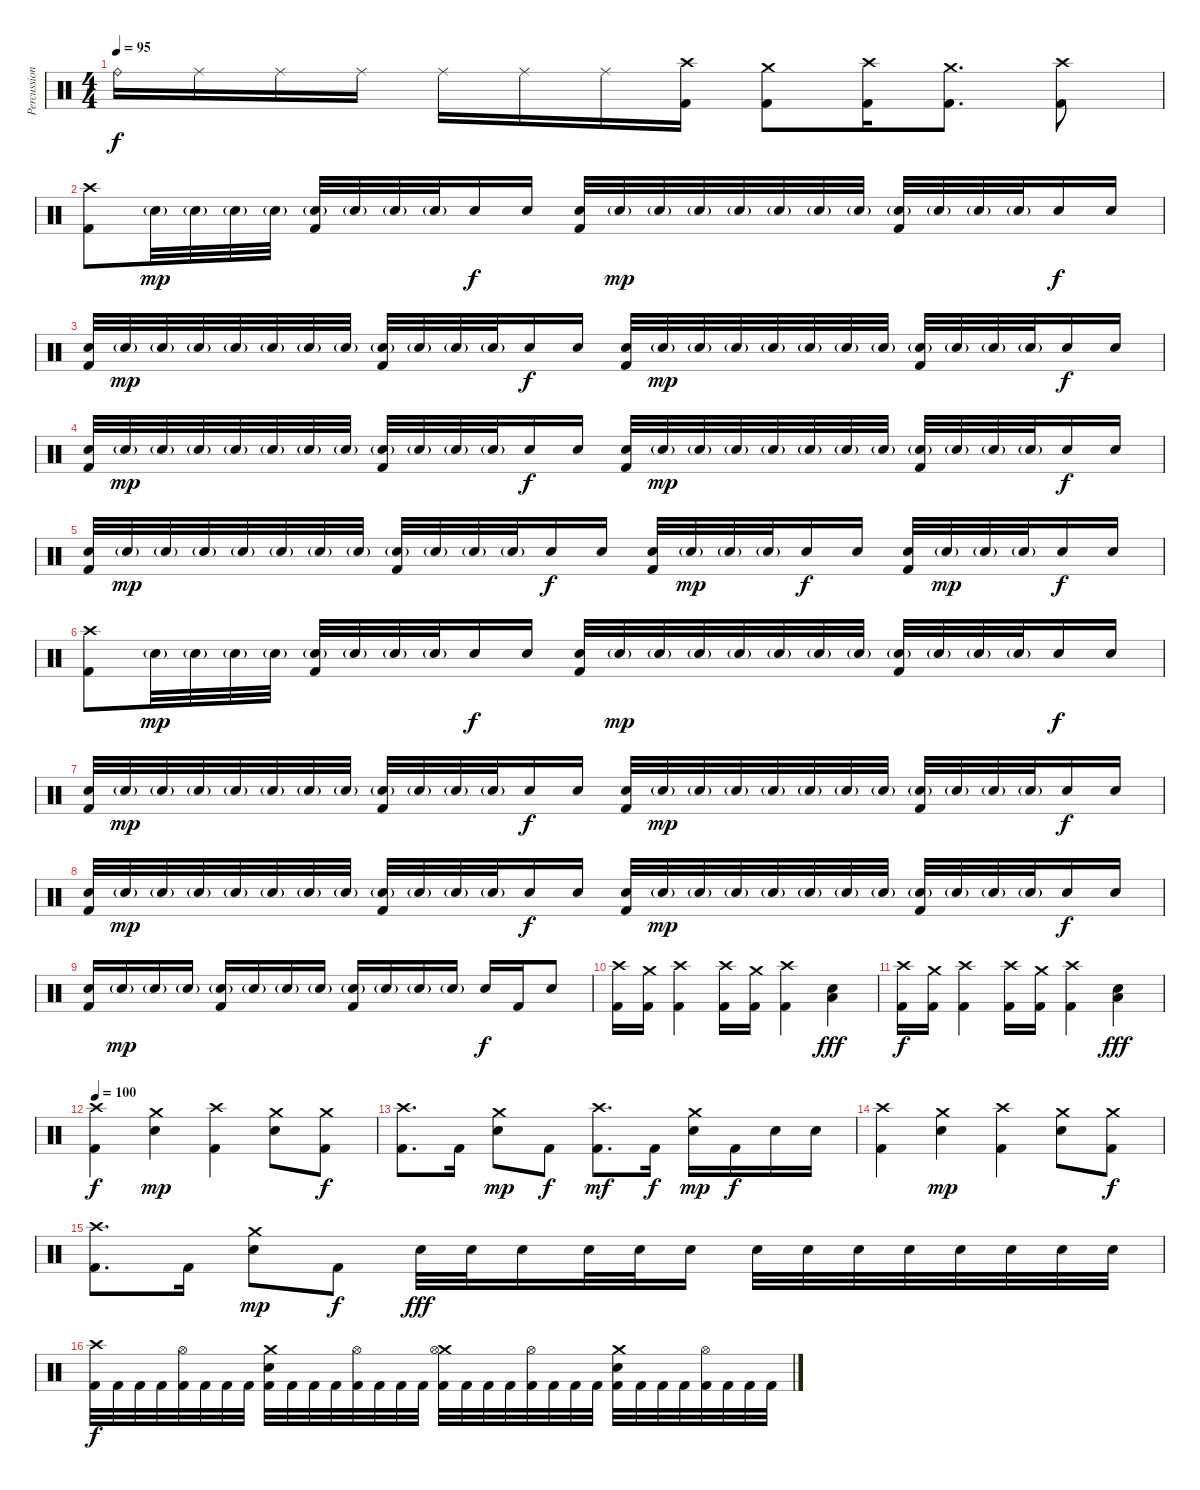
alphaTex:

\track ("Percussion" "Percussion") {instrument percussion}
\staff {score}
\articulation defaults
\ts (4 4)
\tempo 95
\clef neutral
\ks c "Ride (bell)".16{dy f} "Ride (middle)".16 "Ride (middle)".16 "Ride (middle)".16 "Ride (middle)".16 "Ride (middle)".16 "Ride (middle)".16
("Crash high (hit)" "Kick (hit) 2").16 ("Crash medium (hit)" "Kick (hit) 2").8 ("Crash high (hit)" "Kick (hit) 2").16 ("Crash medium (hit)" "Kick (hit) 2").8{d} ("Crash high (hit)" "Kick (hit) 2").8 |
("Crash high (hit)" "Kick (hit) 2").8 "Snare (hit) 2"{g}.32{dy mp} "Snare (hit) 2"{g}.32 "Snare (hit) 2"{g}.32 "Snare (hit) 2"{g}.32 ("Snare (hit) 2"{g} "Kick (hit) 2").32 "Snare (hit) 2"{g}.32 "Snare (hit) 2"{g}.32 "Snare (hit) 2"{g}.32 "Snare (hit) 2".16{dy f} "Snare (hit) 2".16 ("Snare (hit) 2" "Kick (hit) 2").32 "Snare (hit) 2"{g}.32{dy mp} "Snare (hit) 2"{g}.32 "Snare (hit) 2"{g}.32 "Snare (hit) 2"{g}.32 "Snare (hit) 2"{g}.32 "Snare (hit) 2"{g}.32 "Snare (hit) 2"{g}.32 ("Snare (hit) 2"{g} "Kick (hit) 2").32 "Snare (hit) 2"{g}.32 "Snare (hit) 2"{g}.32 "Snare (hit) 2"{g}.32 "Snare (hit) 2".16{dy f} "Snare (hit) 2".16 |
("Snare (hit) 2" "Kick (hit) 2").32 "Snare (hit) 2"{g}.32{dy mp} "Snare (hit) 2"{g}.32 "Snare (hit) 2"{g}.32 "Snare (hit) 2"{g}.32 "Snare (hit) 2"{g}.32 "Snare (hit) 2"{g}.32 "Snare (hit) 2"{g}.32 ("Snare (hit) 2"{g} "Kick (hit) 2").32 "Snare (hit) 2"{g}.32 "Snare (hit) 2"{g}.32 "Snare (hit) 2"{g}.32 "Snare (hit) 2".16{dy f} "Snare (hit) 2".16 ("Snare (hit) 2" "Kick (hit) 2").32 "Snare (hit) 2"{g}.32{dy mp} "Snare (hit) 2"{g}.32 "Snare (hit) 2"{g}.32 "Snare (hit) 2"{g}.32 "Snare (hit) 2"{g}.32 "Snare (hit) 2"{g}.32 "Snare (hit) 2"{g}.32 ("Snare (hit) 2"{g} "Kick (hit) 2").32 "Snare (hit) 2"{g}.32 "Snare (hit) 2"{g}.32 "Snare (hit) 2"{g}.32 "Snare (hit) 2".16{dy f} "Snare (hit) 2".16 |
("Snare (hit) 2" "Kick (hit) 2").32 "Snare (hit) 2"{g}.32{dy mp} "Snare (hit) 2"{g}.32 "Snare (hit) 2"{g}.32 "Snare (hit) 2"{g}.32 "Snare (hit) 2"{g}.32 "Snare (hit) 2"{g}.32 "Snare (hit) 2"{g}.32 ("Snare (hit) 2"{g} "Kick (hit) 2").32 "Snare (hit) 2"{g}.32 "Snare (hit) 2"{g}.32 "Snare (hit) 2"{g}.32 "Snare (hit) 2".16{dy f} "Snare (hit) 2".16 ("Snare (hit) 2" "Kick (hit) 2").32 "Snare (hit) 2"{g}.32{dy mp} "Snare (hit) 2"{g}.32 "Snare (hit) 2"{g}.32 "Snare (hit) 2"{g}.32 "Snare (hit) 2"{g}.32 "Snare (hit) 2"{g}.32 "Snare (hit) 2"{g}.32 ("Snare (hit) 2"{g} "Kick (hit) 2").32 "Snare (hit) 2"{g}.32 "Snare (hit) 2"{g}.32 "Snare (hit) 2"{g}.32 "Snare (hit) 2".16{dy f} "Snare (hit) 2".16 |
("Snare (hit) 2" "Kick (hit) 2").32 "Snare (hit) 2"{g}.32{dy mp} "Snare (hit) 2"{g}.32 "Snare (hit) 2"{g}.32 "Snare (hit) 2"{g}.32 "Snare (hit) 2"{g}.32 "Snare (hit) 2"{g}.32 "Snare (hit) 2"{g}.32 ("Snare (hit) 2"{g} "Kick (hit) 2").32 "Snare (hit) 2"{g}.32 "Snare (hit) 2"{g}.32 "Snare (hit) 2"{g}.32 "Snare (hit) 2".16{dy f} "Snare (hit) 2".16 ("Snare (hit) 2" "Kick (hit) 2").32 "Snare (hit) 2"{g}.32{dy mp} "Snare (hit) 2"{g}.32 "Snare (hit) 2"{g}.32 "Snare (hit) 2".16{dy f} "Snare (hit) 2".16 ("Snare (hit) 2" "Kick (hit) 2").32 "Snare (hit) 2"{g}.32{dy mp} "Snare (hit) 2"{g}.32 "Snare (hit) 2"{g}.32 "Snare (hit) 2".16{dy f} "Snare (hit) 2".16 |
("Crash high (hit)" "Kick (hit) 2").8 "Snare (hit) 2"{g}.32{dy mp} "Snare (hit) 2"{g}.32 "Snare (hit) 2"{g}.32 "Snare (hit) 2"{g}.32 ("Snare (hit) 2"{g} "Kick (hit) 2").32 "Snare (hit) 2"{g}.32 "Snare (hit) 2"{g}.32 "Snare (hit) 2"{g}.32 "Snare (hit) 2".16{dy f} "Snare (hit) 2".16 ("Snare (hit) 2" "Kick (hit) 2").32 "Snare (hit) 2"{g}.32{dy mp} "Snare (hit) 2"{g}.32 "Snare (hit) 2"{g}.32 "Snare (hit) 2"{g}.32 "Snare (hit) 2"{g}.32 "Snare (hit) 2"{g}.32 "Snare (hit) 2"{g}.32 ("Snare (hit) 2"{g} "Kick (hit) 2").32 "Snare (hit) 2"{g}.32 "Snare (hit) 2"{g}.32 "Snare (hit) 2"{g}.32 "Snare (hit) 2".16{dy f} "Snare (hit) 2".16 |
("Snare (hit) 2" "Kick (hit) 2").32 "Snare (hit) 2"{g}.32{dy mp} "Snare (hit) 2"{g}.32 "Snare (hit) 2"{g}.32 "Snare (hit) 2"{g}.32 "Snare (hit) 2"{g}.32 "Snare (hit) 2"{g}.32 "Snare (hit) 2"{g}.32 ("Snare (hit) 2"{g} "Kick (hit) 2").32 "Snare (hit) 2"{g}.32 "Snare (hit) 2"{g}.32 "Snare (hit) 2"{g}.32 "Snare (hit) 2".16{dy f} "Snare (hit) 2".16 ("Snare (hit) 2" "Kick (hit) 2").32 "Snare (hit) 2"{g}.32{dy mp} "Snare (hit) 2"{g}.32 "Snare (hit) 2"{g}.32 "Snare (hit) 2"{g}.32 "Snare (hit) 2"{g}.32 "Snare (hit) 2"{g}.32 "Snare (hit) 2"{g}.32 ("Snare (hit) 2"{g} "Kick (hit) 2").32 "Snare (hit) 2"{g}.32 "Snare (hit) 2"{g}.32 "Snare (hit) 2"{g}.32 "Snare (hit) 2".16{dy f} "Snare (hit) 2".16 |
("Snare (hit) 2" "Kick (hit) 2").32 "Snare (hit) 2"{g}.32{dy mp} "Snare (hit) 2"{g}.32 "Snare (hit) 2"{g}.32 "Snare (hit) 2"{g}.32 "Snare (hit) 2"{g}.32 "Snare (hit) 2"{g}.32 "Snare (hit) 2"{g}.32 ("Snare (hit) 2"{g} "Kick (hit) 2").32 "Snare (hit) 2"{g}.32 "Snare (hit) 2"{g}.32 "Snare (hit) 2"{g}.32 "Snare (hit) 2".16{dy f} "Snare (hit) 2".16 ("Snare (hit) 2" "Kick (hit) 2").32 "Snare (hit) 2"{g}.32{dy mp} "Snare (hit) 2"{g}.32 "Snare (hit) 2"{g}.32 "Snare (hit) 2"{g}.32 "Snare (hit) 2"{g}.32 "Snare (hit) 2"{g}.32 "Snare (hit) 2"{g}.32 ("Snare (hit) 2"{g} "Kick (hit) 2").32 "Snare (hit) 2"{g}.32 "Snare (hit) 2"{g}.32 "Snare (hit) 2"{g}.32 "Snare (hit) 2".16{dy f} "Snare (hit) 2".16 |
("Snare (hit) 2" "Kick (hit) 2").16 "Snare (hit) 2"{g}.16{dy mp} "Snare (hit) 2"{g}.16 "Snare (hit) 2"{g}.16 ("Snare (hit) 2"{g} "Kick (hit) 2").16 "Snare (hit) 2"{g}.16 "Snare (hit) 2"{g}.16 "Snare (hit) 2"{g}.16 ("Snare (hit) 2"{g} "Kick (hit) 2").16 "Snare (hit) 2"{g}.16 "Snare (hit) 2"{g}.16 "Snare (hit) 2"{g}.16 "Snare (hit) 2".16{dy f} "Kick (hit) 2".16 "Snare (hit) 2".8 |
("Crash high (hit)" "Kick (hit) 2").16 ("Crash medium (hit)" "Kick (hit) 2").16 ("Crash high (hit)" "Kick (hit) 2").4 ("Crash high (hit)" "Kick (hit) 2").16 ("Crash medium (hit)" "Kick (hit) 2").16 ("Crash high (hit)" "Kick (hit) 2").4 ("Snare (hit) 2" "Low Floor Tom (hit)").4{dy fff} |
("Crash high (hit)" "Kick (hit) 2").16{dy f} ("Crash medium (hit)" "Kick (hit) 2").16 ("Crash high (hit)" "Kick (hit) 2").4 ("Crash high (hit)" "Kick (hit) 2").16 ("Crash medium (hit)" "Kick (hit) 2").16 ("Crash high (hit)" "Kick (hit) 2").4 ("Snare (hit) 2" "Low Floor Tom (hit)").4{dy fff} |
\tempo 100
("Crash high (hit)" "Kick (hit) 2").4{dy f} ("Crash medium (hit)" "Snare (hit) 2").4{dy mp} ("Crash high (hit)" "Kick (hit) 2").4 ("Crash medium (hit)" "Snare (hit) 2").8 ("Crash medium (hit)" "Kick (hit) 2").8{dy f} |
("Crash high (hit)" "Kick (hit) 2").8{d} "Kick (hit) 2".16 ("Crash medium (hit)" "Snare (hit) 2").8{dy mp} "Kick (hit) 2".8{dy f} ("Crash high (hit)" "Kick (hit) 2").8{d dy mf} "Kick (hit) 2".16{dy f} ("Crash medium (hit)" "Snare (hit) 2").16{dy mp} "Kick (hit) 2".16{dy f} "Snare (hit) 2".16 "Snare (hit) 2".16 |
("Crash high (hit)" "Kick (hit) 2").4 ("Crash medium (hit)" "Snare (hit) 2").4{dy mp} ("Crash high (hit)" "Kick (hit) 2").4 ("Crash medium (hit)" "Snare (hit) 2").8 ("Crash medium (hit)" "Kick (hit) 2").8{dy f} |
("Crash high (hit)" "Kick (hit) 2").8{d} "Kick (hit) 2".16 ("Crash medium (hit)" "Snare (hit) 2").8{dy mp} "Kick (hit) 2".8{dy f} "Snare (hit) 2".32{dy fff} "Snare (hit) 2".32 "Snare (hit) 2".16 "Snare (hit) 2".32 "Snare (hit) 2".32 "Snare (hit) 2".16 "Snare (hit) 2".32 "Snare (hit) 2".32 "Snare (hit) 2".32 "Snare (hit) 2".32 "Snare (hit) 2".32 "Snare (hit) 2".32 "Snare (hit) 2".32 "Snare (hit) 2".32 |
("Crash high (hit)" "Kick (hit) 2").32{dy f} "Kick (hit) 2".32 "Kick (hit) 2".32 "Kick (hit) 2".32 ("Hi-Hat (open)" "Kick (hit) 2").32 "Kick (hit) 2".32 "Kick (hit) 2".32 "Kick (hit) 2".32 ("Crash medium (hit)" "Snare (hit) 2" "Kick (hit) 2").32 "Kick (hit) 2".32 "Kick (hit) 2".32 "Kick (hit) 2".32 ("Hi-Hat (open)" "Kick (hit) 2").32 "Kick (hit) 2".32 "Kick (hit) 2".32 "Kick (hit) 2".32 ("Crash medium (hit)" "Hi-Hat (open)" "Kick (hit) 2").32 "Kick (hit) 2".32 "Kick (hit) 2".32 "Kick (hit) 2".32 ("Hi-Hat (open)" "Kick (hit) 2").32 "Kick (hit) 2".32 "Kick (hit) 2".32 "Kick (hit) 2".32 ("Crash medium (hit)" "Snare (hit) 2" "Kick (hit) 2").32 "Kick (hit) 2".32 "Kick (hit) 2".32 "Kick (hit) 2".32 ("Hi-Hat (open)" "Kick (hit) 2").32 "Kick (hit) 2".32 "Kick (hit) 2".32 "Kick (hit) 2".32
